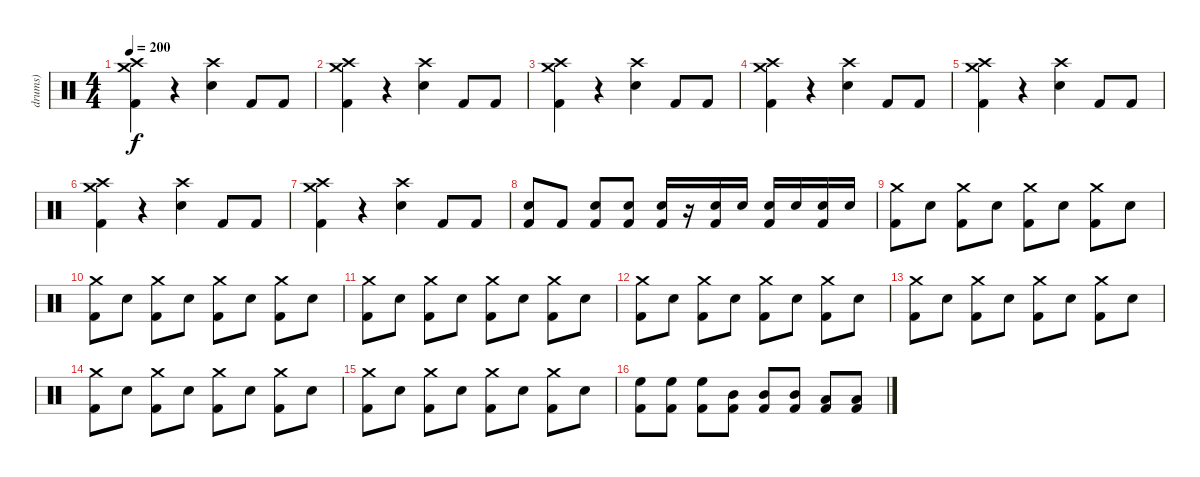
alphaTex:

\track ("drums)" "drums)") {instrument percussion}
\staff {score}
\articulation defaults
\ts (4 4)
\tempo 200
\clef neutral
\ks c
("Crash high (hit)" "Crash medium (hit)" "Kick (hit) 2").4{dy f} r.4 ("Crash high (hit)" "Electric Snare (hit)").4 "Kick (hit) 2".8 "Kick (hit) 2".8 |
("Crash high (hit)" "Crash medium (hit)" "Kick (hit) 2").4 r.4 ("Crash high (hit)" "Electric Snare (hit)").4 "Kick (hit) 2".8 "Kick (hit) 2".8 |
("Crash high (hit)" "Crash medium (hit)" "Kick (hit) 2").4 r.4 ("Crash high (hit)" "Electric Snare (hit)").4 "Kick (hit) 2".8 "Kick (hit) 2".8 |
("Crash high (hit)" "Crash medium (hit)" "Kick (hit) 2").4 r.4 ("Crash high (hit)" "Electric Snare (hit)").4 "Kick (hit) 2".8 "Kick (hit) 2".8 |
("Crash high (hit)" "Crash medium (hit)" "Kick (hit) 2").4 r.4 ("Crash high (hit)" "Electric Snare (hit)").4 "Kick (hit) 2".8 "Kick (hit) 2".8 |
("Crash high (hit)" "Crash medium (hit)" "Kick (hit) 2").4 r.4 ("Crash high (hit)" "Electric Snare (hit)").4 "Kick (hit) 2".8 "Kick (hit) 2".8 |
("Crash high (hit)" "Crash medium (hit)" "Kick (hit) 2").4 r.4 ("Crash high (hit)" "Electric Snare (hit)").4 "Kick (hit) 2".8 "Kick (hit) 2".8 |
("Electric Snare (hit)" "Kick (hit) 2").8 "Kick (hit) 2".8 ("Electric Snare (hit)" "Kick (hit) 2").8 ("Electric Snare (hit)" "Kick (hit) 2").8 ("Electric Snare (hit)" "Kick (hit) 2").16 r.16 ("Electric Snare (hit)" "Kick (hit) 2").16 "Electric Snare (hit)".16 ("Electric Snare (hit)" "Kick (hit) 2").16 "Electric Snare (hit)".16 ("Electric Snare (hit)" "Kick (hit) 2").16 "Electric Snare (hit)".16 |
("Crash medium (hit)" "Kick (hit) 2").8 "Electric Snare (hit)".8 ("Crash medium (hit)" "Kick (hit) 2").8 "Electric Snare (hit)".8 ("Crash medium (hit)" "Kick (hit) 2").8 "Electric Snare (hit)".8 ("Crash medium (hit)" "Kick (hit) 2").8 "Electric Snare (hit)".8 |
("Crash medium (hit)" "Kick (hit) 2").8 "Electric Snare (hit)".8 ("Crash medium (hit)" "Kick (hit) 2").8 "Electric Snare (hit)".8 ("Crash medium (hit)" "Kick (hit) 2").8 "Electric Snare (hit)".8 ("Crash medium (hit)" "Kick (hit) 2").8 "Electric Snare (hit)".8 |
("Crash medium (hit)" "Kick (hit) 2").8 "Electric Snare (hit)".8 ("Crash medium (hit)" "Kick (hit) 2").8 "Electric Snare (hit)".8 ("Crash medium (hit)" "Kick (hit) 2").8 "Electric Snare (hit)".8 ("Crash medium (hit)" "Kick (hit) 2").8 "Electric Snare (hit)".8 |
("Crash medium (hit)" "Kick (hit) 2").8 "Electric Snare (hit)".8 ("Crash medium (hit)" "Kick (hit) 2").8 "Electric Snare (hit)".8 ("Crash medium (hit)" "Kick (hit) 2").8 "Electric Snare (hit)".8 ("Crash medium (hit)" "Kick (hit) 2").8 "Electric Snare (hit)".8 |
("Crash medium (hit)" "Kick (hit) 2").8 "Electric Snare (hit)".8 ("Crash medium (hit)" "Kick (hit) 2").8 "Electric Snare (hit)".8 ("Crash medium (hit)" "Kick (hit) 2").8 "Electric Snare (hit)".8 ("Crash medium (hit)" "Kick (hit) 2").8 "Electric Snare (hit)".8 |
("Crash medium (hit)" "Kick (hit) 2").8 "Electric Snare (hit)".8 ("Crash medium (hit)" "Kick (hit) 2").8 "Electric Snare (hit)".8 ("Crash medium (hit)" "Kick (hit) 2").8 "Electric Snare (hit)".8 ("Crash medium (hit)" "Kick (hit) 2").8 "Electric Snare (hit)".8 |
("Crash medium (hit)" "Kick (hit) 2").8 "Electric Snare (hit)".8 ("Crash medium (hit)" "Kick (hit) 2").8 "Electric Snare (hit)".8 ("Crash medium (hit)" "Kick (hit) 2").8 "Electric Snare (hit)".8 ("Crash medium (hit)" "Kick (hit) 2").8 "Electric Snare (hit)".8 |
("High Floor Tom (hit)" "Kick (hit) 2").8 ("High Floor Tom (hit)" "Kick (hit) 2").8 ("High Floor Tom (hit)" "Kick (hit) 2").8 ("Mid Tom (hit)" "Kick (hit) 2").8 ("Mid Tom (hit)" "Kick (hit) 2").8 ("Mid Tom (hit)" "Kick (hit) 2").8 ("Low Floor Tom (hit)" "Kick (hit) 2").8 ("Low Floor Tom (hit)" "Kick (hit) 2").8
